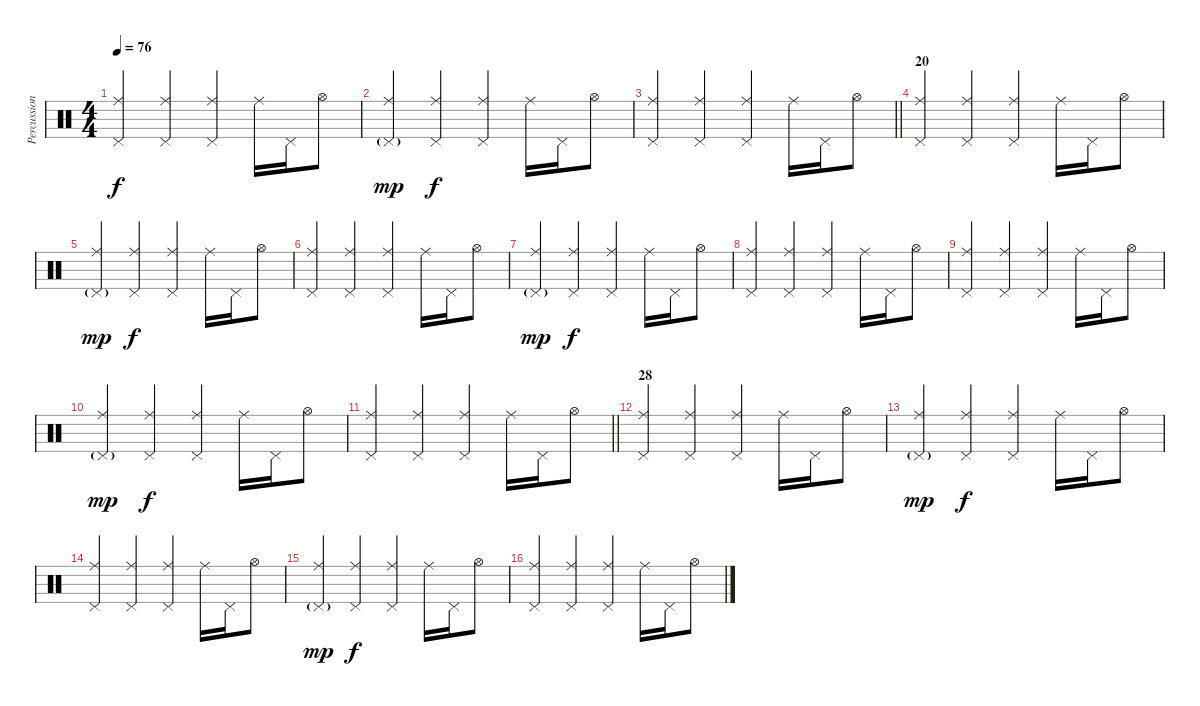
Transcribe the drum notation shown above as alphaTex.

\track ("Percussion" "Percussion") {instrument percussion}
\staff {score}
\articulation defaults
\ts (4 4)
\tempo 76
\clef neutral
\ks c
("Ride (middle)" "Pedal Hi-Hat (hit)").4{dy f} ("Ride (middle)" "Pedal Hi-Hat (hit)").4 ("Ride (middle)" "Pedal Hi-Hat (hit)").4 "Ride (middle)".16 "Pedal Hi-Hat (hit)".16 "Hi-Hat (open)".8 |
("Ride (middle)" "Pedal Hi-Hat (hit)"{g}).4{dy mp} ("Ride (middle)" "Pedal Hi-Hat (hit)").4{dy f} ("Ride (middle)" "Pedal Hi-Hat (hit)").4 "Ride (middle)".16 "Pedal Hi-Hat (hit)".16 "Hi-Hat (open)".8 |
\barLineRight lightlight
("Ride (middle)" "Pedal Hi-Hat (hit)").4 ("Ride (middle)" "Pedal Hi-Hat (hit)").4 ("Ride (middle)" "Pedal Hi-Hat (hit)").4 "Ride (middle)".16 "Pedal Hi-Hat (hit)".16 "Hi-Hat (open)".8 |
\section ("" "20")
("Ride (middle)" "Pedal Hi-Hat (hit)").4 ("Ride (middle)" "Pedal Hi-Hat (hit)").4 ("Ride (middle)" "Pedal Hi-Hat (hit)").4 "Ride (middle)".16 "Pedal Hi-Hat (hit)".16 "Hi-Hat (open)".8 |
("Ride (middle)" "Pedal Hi-Hat (hit)"{g}).4{dy mp} ("Ride (middle)" "Pedal Hi-Hat (hit)").4{dy f} ("Ride (middle)" "Pedal Hi-Hat (hit)").4 "Ride (middle)".16 "Pedal Hi-Hat (hit)".16 "Hi-Hat (open)".8 |
("Ride (middle)" "Pedal Hi-Hat (hit)").4 ("Ride (middle)" "Pedal Hi-Hat (hit)").4 ("Ride (middle)" "Pedal Hi-Hat (hit)").4 "Ride (middle)".16 "Pedal Hi-Hat (hit)".16 "Hi-Hat (open)".8 |
("Ride (middle)" "Pedal Hi-Hat (hit)"{g}).4{dy mp} ("Ride (middle)" "Pedal Hi-Hat (hit)").4{dy f} ("Ride (middle)" "Pedal Hi-Hat (hit)").4 "Ride (middle)".16 "Pedal Hi-Hat (hit)".16 "Hi-Hat (open)".8 |
("Ride (middle)" "Pedal Hi-Hat (hit)").4 ("Ride (middle)" "Pedal Hi-Hat (hit)").4 ("Ride (middle)" "Pedal Hi-Hat (hit)").4 "Ride (middle)".16 "Pedal Hi-Hat (hit)".16 "Hi-Hat (open)".8 |
("Ride (middle)" "Pedal Hi-Hat (hit)").4 ("Ride (middle)" "Pedal Hi-Hat (hit)").4 ("Ride (middle)" "Pedal Hi-Hat (hit)").4 "Ride (middle)".16 "Pedal Hi-Hat (hit)".16 "Hi-Hat (open)".8 |
("Ride (middle)" "Pedal Hi-Hat (hit)"{g}).4{dy mp} ("Ride (middle)" "Pedal Hi-Hat (hit)").4{dy f} ("Ride (middle)" "Pedal Hi-Hat (hit)").4 "Ride (middle)".16 "Pedal Hi-Hat (hit)".16 "Hi-Hat (open)".8 |
\barLineRight lightlight
("Ride (middle)" "Pedal Hi-Hat (hit)").4 ("Ride (middle)" "Pedal Hi-Hat (hit)").4 ("Ride (middle)" "Pedal Hi-Hat (hit)").4 "Ride (middle)".16 "Pedal Hi-Hat (hit)".16 "Hi-Hat (open)".8 |
\section ("" "28")
("Ride (middle)" "Pedal Hi-Hat (hit)").4 ("Ride (middle)" "Pedal Hi-Hat (hit)").4 ("Ride (middle)" "Pedal Hi-Hat (hit)").4 "Ride (middle)".16 "Pedal Hi-Hat (hit)".16 "Hi-Hat (open)".8 |
("Ride (middle)" "Pedal Hi-Hat (hit)"{g}).4{dy mp} ("Ride (middle)" "Pedal Hi-Hat (hit)").4{dy f} ("Ride (middle)" "Pedal Hi-Hat (hit)").4 "Ride (middle)".16 "Pedal Hi-Hat (hit)".16 "Hi-Hat (open)".8 |
("Ride (middle)" "Pedal Hi-Hat (hit)").4 ("Ride (middle)" "Pedal Hi-Hat (hit)").4 ("Ride (middle)" "Pedal Hi-Hat (hit)").4 "Ride (middle)".16 "Pedal Hi-Hat (hit)".16 "Hi-Hat (open)".8 |
("Ride (middle)" "Pedal Hi-Hat (hit)"{g}).4{dy mp} ("Ride (middle)" "Pedal Hi-Hat (hit)").4{dy f} ("Ride (middle)" "Pedal Hi-Hat (hit)").4 "Ride (middle)".16 "Pedal Hi-Hat (hit)".16 "Hi-Hat (open)".8 |
("Ride (middle)" "Pedal Hi-Hat (hit)").4 ("Ride (middle)" "Pedal Hi-Hat (hit)").4 ("Ride (middle)" "Pedal Hi-Hat (hit)").4 "Ride (middle)".16 "Pedal Hi-Hat (hit)".16 "Hi-Hat (open)".8
